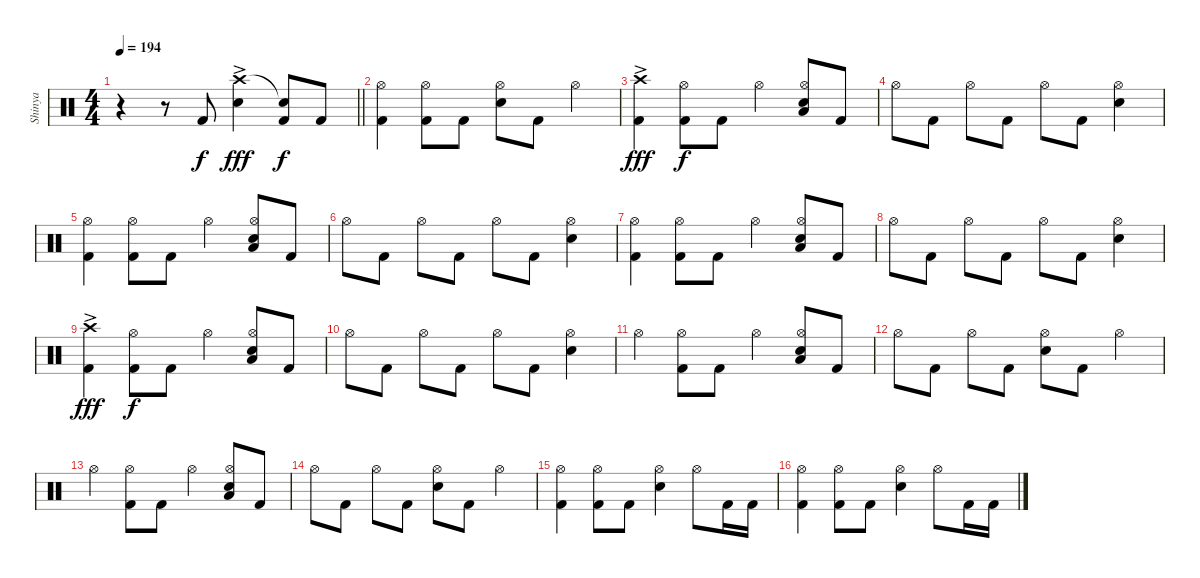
\track ("Shinya" "Shinya") {instrument percussion}
\staff {score}
\articulation defaults
\ts (4 4)
\tempo 194
\clef neutral
\barLineRight lightlight
\ks c
r.4{dy f} r.8 "Kick (hit) 2".8 ("Crash high (hit)"{ac} "Snare (hit) 2").4{dy fff} ("Snare (hit)"{t} "Kick (hit) 2").8{dy f} "Kick (hit) 2".8 |
("Hi-Hat (open)" "Kick (hit) 2").4 ("Hi-Hat (open)" "Kick (hit) 2").8 "Kick (hit) 2".8 ("Hi-Hat (open)" "Snare (hit) 2").8 "Kick (hit) 2".8 "Hi-Hat (open)".4 |
("Crash high (hit)"{ac} "Kick (hit) 2").4{dy fff} ("Hi-Hat (open)" "Kick (hit) 2").8{dy f} "Kick (hit) 2".8 "Hi-Hat (open)".4 ("Hi-Hat (open)" "Snare (hit) 2" "Low Floor Tom (hit)").8 "Kick (hit) 2".8 |
"Hi-Hat (open)".8 "Kick (hit) 2".8 "Hi-Hat (open)".8 "Kick (hit) 2".8 "Hi-Hat (open)".8 "Kick (hit) 2".8 ("Hi-Hat (open)" "Snare (hit) 2").4 |
("Hi-Hat (open)" "Kick (hit) 2").4 ("Hi-Hat (open)" "Kick (hit) 2").8 "Kick (hit) 2".8 "Hi-Hat (open)".4 ("Hi-Hat (open)" "Snare (hit) 2" "Low Floor Tom (hit)").8 "Kick (hit) 2".8 |
"Hi-Hat (open)".8 "Kick (hit) 2".8 "Hi-Hat (open)".8 "Kick (hit) 2".8 "Hi-Hat (open)".8 "Kick (hit) 2".8 ("Hi-Hat (open)" "Snare (hit) 2").4 |
("Hi-Hat (open)" "Kick (hit) 2").4 ("Hi-Hat (open)" "Kick (hit) 2").8 "Kick (hit) 2".8 "Hi-Hat (open)".4 ("Hi-Hat (open)" "Snare (hit) 2" "Low Floor Tom (hit)").8 "Kick (hit) 2".8 |
"Hi-Hat (open)".8 "Kick (hit) 2".8 "Hi-Hat (open)".8 "Kick (hit) 2".8 "Hi-Hat (open)".8 "Kick (hit) 2".8 ("Hi-Hat (open)" "Snare (hit) 2").4 |
("Crash high (hit)"{ac} "Kick (hit) 2").4{dy fff} ("Hi-Hat (open)" "Kick (hit) 2").8{dy f} "Kick (hit) 2".8 "Hi-Hat (open)".4 ("Hi-Hat (open)" "Snare (hit) 2" "Low Floor Tom (hit)").8 "Kick (hit) 2".8 |
"Hi-Hat (open)".8 "Kick (hit) 2".8 "Hi-Hat (open)".8 "Kick (hit) 2".8 "Hi-Hat (open)".8 "Kick (hit) 2".8 ("Hi-Hat (open)" "Snare (hit) 2").4 |
"Hi-Hat (open)".4 ("Hi-Hat (open)" "Kick (hit) 2").8 "Kick (hit) 2".8 "Hi-Hat (open)".4 ("Hi-Hat (open)" "Snare (hit) 2" "Low Floor Tom (hit)").8 "Kick (hit) 2".8 |
"Hi-Hat (open)".8 "Kick (hit) 2".8 "Hi-Hat (open)".8 "Kick (hit) 2".8 ("Hi-Hat (open)" "Snare (hit) 2").8 "Kick (hit) 2".8 "Hi-Hat (open)".4 |
"Hi-Hat (open)".4 ("Hi-Hat (open)" "Kick (hit) 2").8 "Kick (hit) 2".8 "Hi-Hat (open)".4 ("Hi-Hat (open)" "Snare (hit) 2" "Low Floor Tom (hit)").8 "Kick (hit) 2".8 |
"Hi-Hat (open)".8 "Kick (hit) 2".8 "Hi-Hat (open)".8 "Kick (hit) 2".8 ("Hi-Hat (open)" "Snare (hit) 2").8 "Kick (hit) 2".8 "Hi-Hat (open)".4 |
("Hi-Hat (open)" "Kick (hit) 2").4 ("Hi-Hat (open)" "Kick (hit) 2").8 "Kick (hit) 2".8 ("Hi-Hat (open)" "Snare (hit) 2").4 "Hi-Hat (open)".8 "Kick (hit) 2".16 "Kick (hit) 2".16 |
("Hi-Hat (open)" "Kick (hit) 2").4 ("Hi-Hat (open)" "Kick (hit) 2").8 "Kick (hit) 2".8 ("Hi-Hat (open)" "Snare (hit) 2").4 "Hi-Hat (open)".8 "Kick (hit) 2".16 "Kick (hit) 2".16
